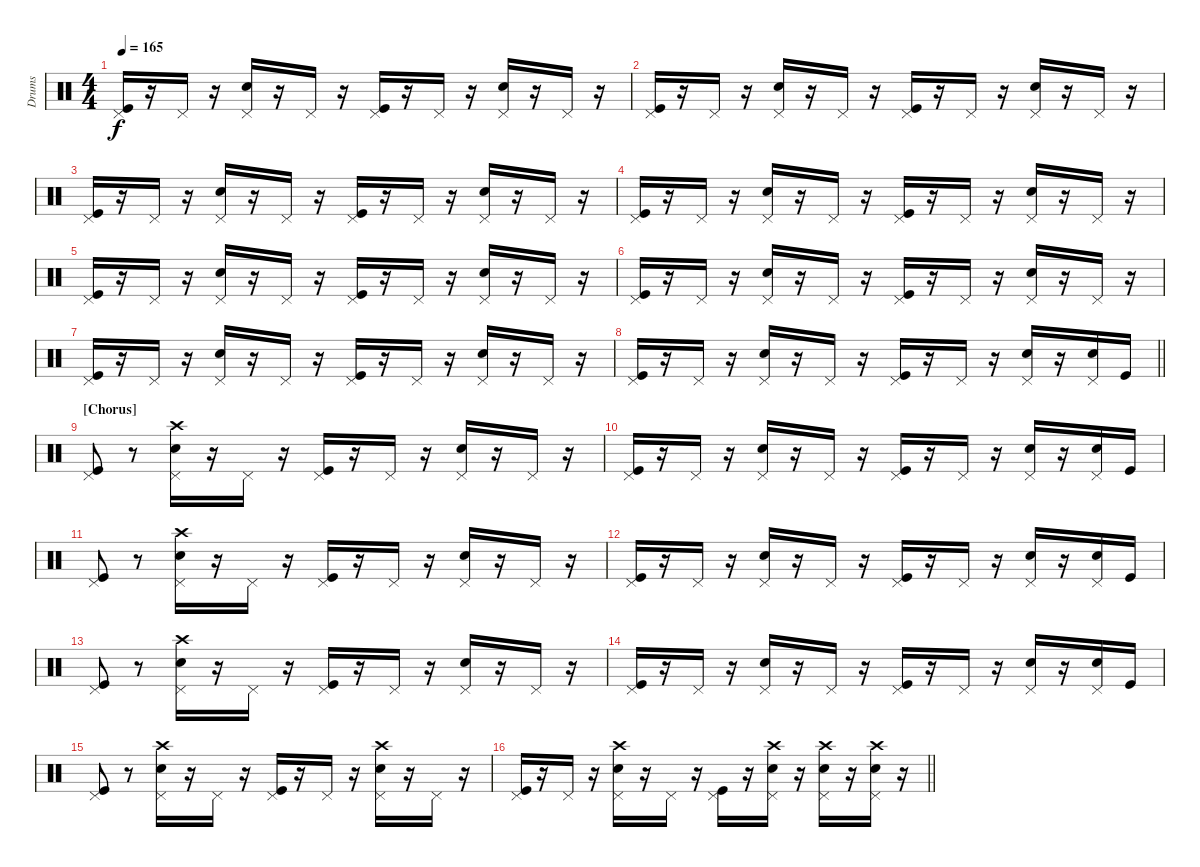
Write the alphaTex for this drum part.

\track ("Drums" "Drums") {instrument percussion}
\staff {score}
\articulation defaults
\ts (4 4)
\tempo 165
\clef neutral
\ks c
("Pedal Hi-Hat (hit)" "Kick (hit)").16{dy f} r.16 "Pedal Hi-Hat (hit)".16 r.16 ("Pedal Hi-Hat (hit)" "Snare (hit) 2").16 r.16 "Pedal Hi-Hat (hit)".16 r.16 ("Pedal Hi-Hat (hit)" "Kick (hit)").16 r.16 "Pedal Hi-Hat (hit)".16 r.16 ("Pedal Hi-Hat (hit)" "Snare (hit) 2").16 r.16 "Pedal Hi-Hat (hit)".16 r.16 |
("Pedal Hi-Hat (hit)" "Kick (hit)").16 r.16 "Pedal Hi-Hat (hit)".16 r.16 ("Pedal Hi-Hat (hit)" "Snare (hit) 2").16 r.16 "Pedal Hi-Hat (hit)".16 r.16 ("Pedal Hi-Hat (hit)" "Kick (hit)").16 r.16 "Pedal Hi-Hat (hit)".16 r.16 ("Pedal Hi-Hat (hit)" "Snare (hit) 2").16 r.16 "Pedal Hi-Hat (hit)".16 r.16 |
("Pedal Hi-Hat (hit)" "Kick (hit)").16 r.16 "Pedal Hi-Hat (hit)".16 r.16 ("Pedal Hi-Hat (hit)" "Snare (hit) 2").16 r.16 "Pedal Hi-Hat (hit)".16 r.16 ("Pedal Hi-Hat (hit)" "Kick (hit)").16 r.16 "Pedal Hi-Hat (hit)".16 r.16 ("Pedal Hi-Hat (hit)" "Snare (hit) 2").16 r.16 "Pedal Hi-Hat (hit)".16 r.16 |
("Pedal Hi-Hat (hit)" "Kick (hit)").16 r.16 "Pedal Hi-Hat (hit)".16 r.16 ("Pedal Hi-Hat (hit)" "Snare (hit) 2").16 r.16 "Pedal Hi-Hat (hit)".16 r.16 ("Pedal Hi-Hat (hit)" "Kick (hit)").16 r.16 "Pedal Hi-Hat (hit)".16 r.16 ("Pedal Hi-Hat (hit)" "Snare (hit) 2").16 r.16 "Pedal Hi-Hat (hit)".16 r.16 |
("Pedal Hi-Hat (hit)" "Kick (hit)").16 r.16 "Pedal Hi-Hat (hit)".16 r.16 ("Pedal Hi-Hat (hit)" "Snare (hit) 2").16 r.16 "Pedal Hi-Hat (hit)".16 r.16 ("Pedal Hi-Hat (hit)" "Kick (hit)").16 r.16 "Pedal Hi-Hat (hit)".16 r.16 ("Pedal Hi-Hat (hit)" "Snare (hit) 2").16 r.16 "Pedal Hi-Hat (hit)".16 r.16 |
("Pedal Hi-Hat (hit)" "Kick (hit)").16 r.16 "Pedal Hi-Hat (hit)".16 r.16 ("Pedal Hi-Hat (hit)" "Snare (hit) 2").16 r.16 "Pedal Hi-Hat (hit)".16 r.16 ("Pedal Hi-Hat (hit)" "Kick (hit)").16 r.16 "Pedal Hi-Hat (hit)".16 r.16 ("Pedal Hi-Hat (hit)" "Snare (hit) 2").16 r.16 "Pedal Hi-Hat (hit)".16 r.16 |
("Pedal Hi-Hat (hit)" "Kick (hit)").16 r.16 "Pedal Hi-Hat (hit)".16 r.16 ("Pedal Hi-Hat (hit)" "Snare (hit) 2").16 r.16 "Pedal Hi-Hat (hit)".16 r.16 ("Pedal Hi-Hat (hit)" "Kick (hit)").16 r.16 "Pedal Hi-Hat (hit)".16 r.16 ("Pedal Hi-Hat (hit)" "Snare (hit) 2").16 r.16 "Pedal Hi-Hat (hit)".16 r.16 |
\barLineRight lightlight
("Pedal Hi-Hat (hit)" "Kick (hit)").16 r.16 "Pedal Hi-Hat (hit)".16 r.16 ("Pedal Hi-Hat (hit)" "Snare (hit) 2").16 r.16 "Pedal Hi-Hat (hit)".16 r.16 ("Pedal Hi-Hat (hit)" "Kick (hit)").16 r.16 "Pedal Hi-Hat (hit)".16 r.16 ("Pedal Hi-Hat (hit)" "Snare (hit) 2").16 r.16 ("Pedal Hi-Hat (hit)" "Snare (hit) 2").16 "Kick (hit)".16 |
\section ("" "[Chorus]")
("Pedal Hi-Hat (hit)" "Kick (hit)").8 r.8 ("Pedal Hi-Hat (hit)" "Crash high (hit)" "Snare (hit) 2").16 r.16 "Pedal Hi-Hat (hit)".16 r.16 ("Pedal Hi-Hat (hit)" "Kick (hit)").16 r.16 "Pedal Hi-Hat (hit)".16 r.16 ("Pedal Hi-Hat (hit)" "Snare (hit) 2").16 r.16 "Pedal Hi-Hat (hit)".16 r.16 |
("Pedal Hi-Hat (hit)" "Kick (hit)").16 r.16 "Pedal Hi-Hat (hit)".16 r.16 ("Pedal Hi-Hat (hit)" "Snare (hit) 2").16 r.16 "Pedal Hi-Hat (hit)".16 r.16 ("Pedal Hi-Hat (hit)" "Kick (hit)").16 r.16 "Pedal Hi-Hat (hit)".16 r.16 ("Pedal Hi-Hat (hit)" "Snare (hit) 2").16 r.16 ("Pedal Hi-Hat (hit)" "Snare (hit) 2").16 "Kick (hit)".16 |
("Pedal Hi-Hat (hit)" "Kick (hit)").8 r.8 ("Pedal Hi-Hat (hit)" "Crash high (hit)" "Snare (hit) 2").16 r.16 "Pedal Hi-Hat (hit)".16 r.16 ("Pedal Hi-Hat (hit)" "Kick (hit)").16 r.16 "Pedal Hi-Hat (hit)".16 r.16 ("Pedal Hi-Hat (hit)" "Snare (hit) 2").16 r.16 "Pedal Hi-Hat (hit)".16 r.16 |
("Pedal Hi-Hat (hit)" "Kick (hit)").16 r.16 "Pedal Hi-Hat (hit)".16 r.16 ("Pedal Hi-Hat (hit)" "Snare (hit) 2").16 r.16 "Pedal Hi-Hat (hit)".16 r.16 ("Pedal Hi-Hat (hit)" "Kick (hit)").16 r.16 "Pedal Hi-Hat (hit)".16 r.16 ("Pedal Hi-Hat (hit)" "Snare (hit) 2").16 r.16 ("Pedal Hi-Hat (hit)" "Snare (hit) 2").16 "Kick (hit)".16 |
("Pedal Hi-Hat (hit)" "Kick (hit)").8 r.8 ("Pedal Hi-Hat (hit)" "Crash high (hit)" "Snare (hit) 2").16 r.16 "Pedal Hi-Hat (hit)".16 r.16 ("Pedal Hi-Hat (hit)" "Kick (hit)").16 r.16 "Pedal Hi-Hat (hit)".16 r.16 ("Pedal Hi-Hat (hit)" "Snare (hit) 2").16 r.16 "Pedal Hi-Hat (hit)".16 r.16 |
("Pedal Hi-Hat (hit)" "Kick (hit)").16 r.16 "Pedal Hi-Hat (hit)".16 r.16 ("Pedal Hi-Hat (hit)" "Snare (hit) 2").16 r.16 "Pedal Hi-Hat (hit)".16 r.16 ("Pedal Hi-Hat (hit)" "Kick (hit)").16 r.16 "Pedal Hi-Hat (hit)".16 r.16 ("Pedal Hi-Hat (hit)" "Snare (hit) 2").16 r.16 ("Pedal Hi-Hat (hit)" "Snare (hit) 2").16 "Kick (hit)".16 |
("Pedal Hi-Hat (hit)" "Kick (hit)").8 r.8 ("Pedal Hi-Hat (hit)" "Crash high (hit)" "Snare (hit) 2").16 r.16 "Pedal Hi-Hat (hit)".16 r.16 ("Pedal Hi-Hat (hit)" "Kick (hit)").16 r.16 "Pedal Hi-Hat (hit)".16 r.16 ("Pedal Hi-Hat (hit)" "Crash high (hit)" "Snare (hit) 2").16 r.16 "Pedal Hi-Hat (hit)".16 r.16 |
\barLineRight lightlight
("Pedal Hi-Hat (hit)" "Kick (hit)").16 r.16 "Pedal Hi-Hat (hit)".16 r.16 ("Pedal Hi-Hat (hit)" "Crash high (hit)" "Snare (hit) 2").16 r.16 "Pedal Hi-Hat (hit)".16 r.16 ("Pedal Hi-Hat (hit)" "Kick (hit)").16 r.16 ("Pedal Hi-Hat (hit)" "Crash high (hit)" "Snare (hit) 2").16 r.16 ("Pedal Hi-Hat (hit)" "Crash high (hit)" "Snare (hit) 2").16 r.16 ("Pedal Hi-Hat (hit)" "Crash high (hit)" "Snare (hit) 2").16 r.16
